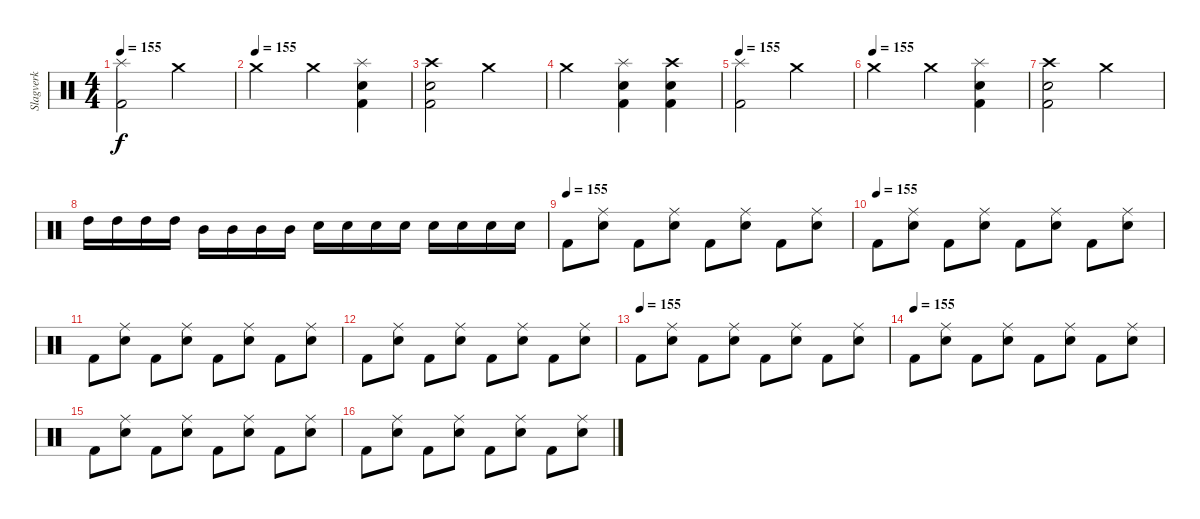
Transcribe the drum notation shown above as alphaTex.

\track ("Slagverk" "Slagverk") {instrument percussion}
\staff {score}
\articulation defaults
\ts (4 4)
\tempo 155
\clef neutral
\ks c
("Splash (hit)" "Kick (hit) 2").2{dy f} "Crash medium (hit)".2 |
\tempo (155)
"Crash medium (hit)".2 "Crash medium (hit)".4 ("Splash (hit)" "Snare (hit) 2" "Kick (hit) 2").4 |
("Crash high (hit)" "Snare (hit) 2" "Kick (hit) 2").2 "Crash medium (hit)".2 |
"Crash medium (hit)".2 ("Splash (hit)" "Snare (hit) 2" "Kick (hit) 2").4 ("Crash high (hit)" "Snare (hit) 2" "Kick (hit) 2").4 |
\tempo 155
("Splash (hit)" "Kick (hit) 2").2 "Crash medium (hit)".2 |
\tempo (155)
"Crash medium (hit)".2 "Crash medium (hit)".4 ("Splash (hit)" "Snare (hit) 2" "Kick (hit) 2").4 |
("Crash high (hit)" "Snare (hit) 2" "Kick (hit) 2").2 "Crash medium (hit)".2 |
"High Tom (hit)".16 "High Tom (hit)".16 "High Tom (hit)".16 "High Tom (hit)".16 "Mid Tom (hit)".16 "Mid Tom (hit)".16 "Mid Tom (hit)".16 "Mid Tom (hit)".16 "Electric Snare (hit)".16 "Electric Snare (hit)".16 "Electric Snare (hit)".16 "Electric Snare (hit)".16 "Snare (hit) 2".16 "Snare (hit) 2".16 "Snare (hit) 2".16 "Snare (hit) 2".16 |
\tempo (155)
"Kick (hit) 2".8 ("Ride (middle)" "Snare (hit) 2").8 "Kick (hit) 2".8 ("Ride (middle)" "Snare (hit) 2").8 "Kick (hit) 2".8 ("Ride (middle)" "Snare (hit) 2").8 "Kick (hit) 2".8 ("Ride (middle)" "Snare (hit) 2").8 |
\tempo (155)
"Kick (hit) 2".8 ("Ride (middle)" "Snare (hit) 2").8 "Kick (hit) 2".8 ("Ride (middle)" "Snare (hit) 2").8 "Kick (hit) 2".8 ("Ride (middle)" "Snare (hit) 2").8 "Kick (hit) 2".8 ("Ride (middle)" "Snare (hit) 2").8 |
"Kick (hit) 2".8 ("Ride (middle)" "Snare (hit) 2").8 "Kick (hit) 2".8 ("Ride (middle)" "Snare (hit) 2").8 "Kick (hit) 2".8 ("Ride (middle)" "Snare (hit) 2").8 "Kick (hit) 2".8 ("Ride (middle)" "Snare (hit) 2").8 |
"Kick (hit) 2".8 ("Ride (middle)" "Snare (hit) 2").8 "Kick (hit) 2".8 ("Ride (middle)" "Snare (hit) 2").8 "Kick (hit) 2".8 ("Ride (middle)" "Snare (hit) 2").8 "Kick (hit) 2".8 ("Ride (middle)" "Snare (hit) 2").8 |
\tempo (155)
"Kick (hit) 2".8 ("Ride (middle)" "Snare (hit) 2").8 "Kick (hit) 2".8 ("Ride (middle)" "Snare (hit) 2").8 "Kick (hit) 2".8 ("Ride (middle)" "Snare (hit) 2").8 "Kick (hit) 2".8 ("Ride (middle)" "Snare (hit) 2").8 |
\tempo (155)
"Kick (hit) 2".8 ("Ride (middle)" "Snare (hit) 2").8 "Kick (hit) 2".8 ("Ride (middle)" "Snare (hit) 2").8 "Kick (hit) 2".8 ("Ride (middle)" "Snare (hit) 2").8 "Kick (hit) 2".8 ("Ride (middle)" "Snare (hit) 2").8 |
"Kick (hit) 2".8 ("Ride (middle)" "Snare (hit) 2").8 "Kick (hit) 2".8 ("Ride (middle)" "Snare (hit) 2").8 "Kick (hit) 2".8 ("Ride (middle)" "Snare (hit) 2").8 "Kick (hit) 2".8 ("Ride (middle)" "Snare (hit) 2").8 |
"Kick (hit) 2".8 ("Ride (middle)" "Snare (hit) 2").8 "Kick (hit) 2".8 ("Ride (middle)" "Snare (hit) 2").8 "Kick (hit) 2".8 ("Ride (middle)" "Snare (hit) 2").8 "Kick (hit) 2".8 ("Ride (middle)" "Snare (hit) 2").8
